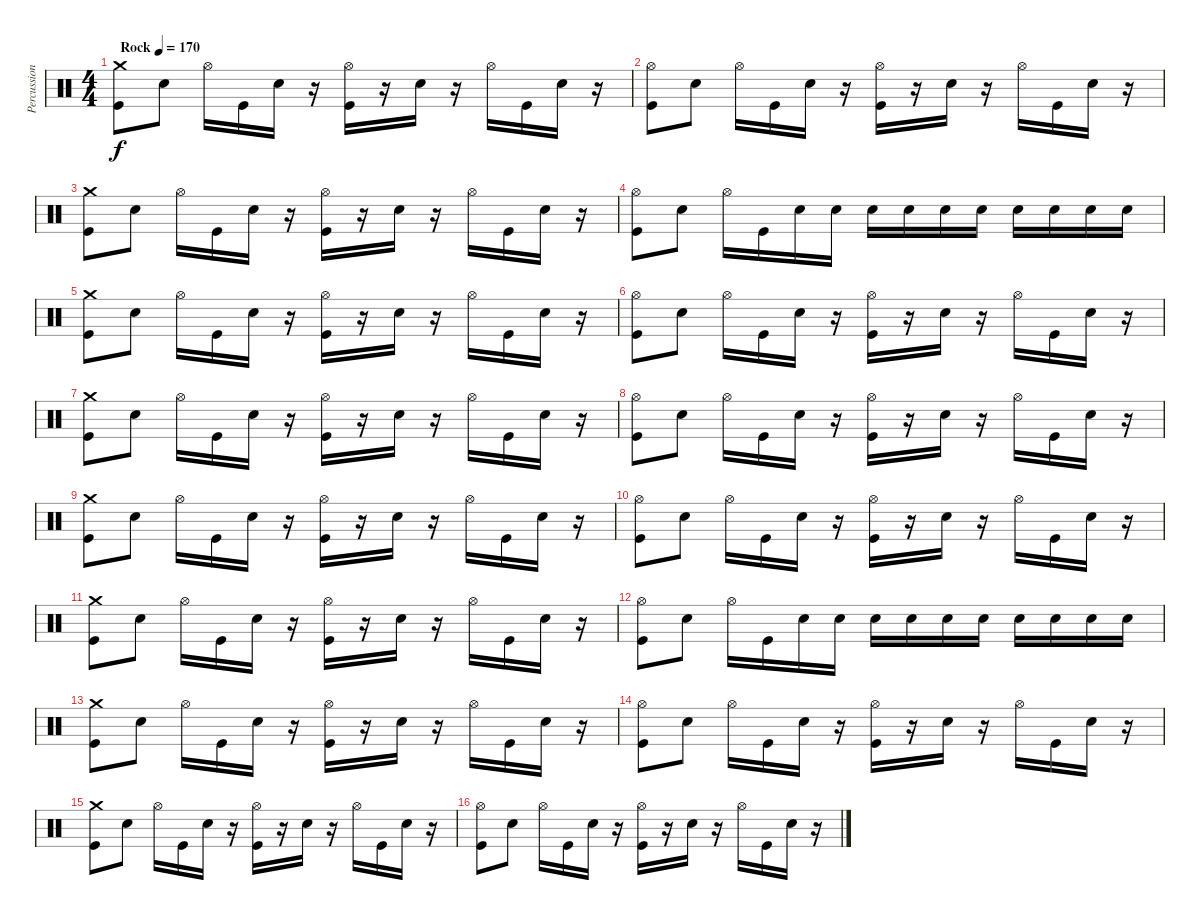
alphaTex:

\track ("Percussion [Ron]" "Percussion") {instrument percussion}
\staff {score}
\articulation defaults
\ts (4 4)
\tempo (170 "Rock")
\clef neutral
\ks c
("Kick (hit)" "Crash medium (hit)").8{dy f} "Snare (hit) 2".8 "Hi-Hat (open)".16 "Kick (hit)".16 "Snare (hit) 2".16 r.16 ("Kick (hit)" "Hi-Hat (open)").16 r.16 "Snare (hit) 2".16 r.16 "Hi-Hat (open)".16 "Kick (hit)".16 "Snare (hit) 2".16 r.16 |
("Kick (hit)" "Hi-Hat (open)").8 "Snare (hit) 2".8 "Hi-Hat (open)".16 "Kick (hit)".16 "Snare (hit) 2".16 r.16 ("Kick (hit)" "Hi-Hat (open)").16 r.16 "Snare (hit) 2".16 r.16 "Hi-Hat (open)".16 "Kick (hit)".16 "Snare (hit) 2".16 r.16 |
("Kick (hit)" "Crash medium (hit)").8 "Snare (hit) 2".8 "Hi-Hat (open)".16 "Kick (hit)".16 "Snare (hit) 2".16 r.16 ("Kick (hit)" "Hi-Hat (open)").16 r.16 "Snare (hit) 2".16 r.16 "Hi-Hat (open)".16 "Kick (hit)".16 "Snare (hit) 2".16 r.16 |
("Kick (hit)" "Hi-Hat (open)").8 "Snare (hit) 2".8 "Hi-Hat (open)".16 "Kick (hit)".16 "Snare (hit) 2".16 "Snare (hit) 2".16 "Snare (hit) 2".16 "Snare (hit) 2".16 "Snare (hit) 2".16 "Snare (hit) 2".16 "Snare (hit) 2".16 "Snare (hit) 2".16 "Snare (hit) 2".16 "Snare (hit) 2".16 |
("Kick (hit)" "Crash medium (hit)").8 "Snare (hit) 2".8 "Hi-Hat (open)".16 "Kick (hit)".16 "Snare (hit) 2".16 r.16 ("Kick (hit)" "Hi-Hat (open)").16 r.16 "Snare (hit) 2".16 r.16 "Hi-Hat (open)".16 "Kick (hit)".16 "Snare (hit) 2".16 r.16 |
("Kick (hit)" "Hi-Hat (open)").8 "Snare (hit) 2".8 "Hi-Hat (open)".16 "Kick (hit)".16 "Snare (hit) 2".16 r.16 ("Kick (hit)" "Hi-Hat (open)").16 r.16 "Snare (hit) 2".16 r.16 "Hi-Hat (open)".16 "Kick (hit)".16 "Snare (hit) 2".16 r.16 |
("Kick (hit)" "Crash medium (hit)").8 "Snare (hit) 2".8 "Hi-Hat (open)".16 "Kick (hit)".16 "Snare (hit) 2".16 r.16 ("Kick (hit)" "Hi-Hat (open)").16 r.16 "Snare (hit) 2".16 r.16 "Hi-Hat (open)".16 "Kick (hit)".16 "Snare (hit) 2".16 r.16 |
("Kick (hit)" "Hi-Hat (open)").8 "Snare (hit) 2".8 "Hi-Hat (open)".16 "Kick (hit)".16 "Snare (hit) 2".16 r.16 ("Kick (hit)" "Hi-Hat (open)").16 r.16 "Snare (hit) 2".16 r.16 "Hi-Hat (open)".16 "Kick (hit)".16 "Snare (hit) 2".16 r.16 |
("Kick (hit)" "Crash medium (hit)").8 "Snare (hit) 2".8 "Hi-Hat (open)".16 "Kick (hit)".16 "Snare (hit) 2".16 r.16 ("Kick (hit)" "Hi-Hat (open)").16 r.16 "Snare (hit) 2".16 r.16 "Hi-Hat (open)".16 "Kick (hit)".16 "Snare (hit) 2".16 r.16 |
("Kick (hit)" "Hi-Hat (open)").8 "Snare (hit) 2".8 "Hi-Hat (open)".16 "Kick (hit)".16 "Snare (hit) 2".16 r.16 ("Kick (hit)" "Hi-Hat (open)").16 r.16 "Snare (hit) 2".16 r.16 "Hi-Hat (open)".16 "Kick (hit)".16 "Snare (hit) 2".16 r.16 |
("Kick (hit)" "Crash medium (hit)").8 "Snare (hit) 2".8 "Hi-Hat (open)".16 "Kick (hit)".16 "Snare (hit) 2".16 r.16 ("Kick (hit)" "Hi-Hat (open)").16 r.16 "Snare (hit) 2".16 r.16 "Hi-Hat (open)".16 "Kick (hit)".16 "Snare (hit) 2".16 r.16 |
("Kick (hit)" "Hi-Hat (open)").8 "Snare (hit) 2".8 "Hi-Hat (open)".16 "Kick (hit)".16 "Snare (hit) 2".16 "Snare (hit) 2".16 "Snare (hit) 2".16 "Snare (hit) 2".16 "Snare (hit) 2".16 "Snare (hit) 2".16 "Snare (hit) 2".16 "Snare (hit) 2".16 "Snare (hit) 2".16 "Snare (hit) 2".16 |
("Kick (hit)" "Crash medium (hit)").8 "Snare (hit) 2".8 "Hi-Hat (open)".16 "Kick (hit)".16 "Snare (hit) 2".16 r.16 ("Kick (hit)" "Hi-Hat (open)").16 r.16 "Snare (hit) 2".16 r.16 "Hi-Hat (open)".16 "Kick (hit)".16 "Snare (hit) 2".16 r.16 |
("Kick (hit)" "Hi-Hat (open)").8 "Snare (hit) 2".8 "Hi-Hat (open)".16 "Kick (hit)".16 "Snare (hit) 2".16 r.16 ("Kick (hit)" "Hi-Hat (open)").16 r.16 "Snare (hit) 2".16 r.16 "Hi-Hat (open)".16 "Kick (hit)".16 "Snare (hit) 2".16 r.16 |
("Kick (hit)" "Crash medium (hit)").8 "Snare (hit) 2".8 "Hi-Hat (open)".16 "Kick (hit)".16 "Snare (hit) 2".16 r.16 ("Kick (hit)" "Hi-Hat (open)").16 r.16 "Snare (hit) 2".16 r.16 "Hi-Hat (open)".16 "Kick (hit)".16 "Snare (hit) 2".16 r.16 |
("Kick (hit)" "Hi-Hat (open)").8 "Snare (hit) 2".8 "Hi-Hat (open)".16 "Kick (hit)".16 "Snare (hit) 2".16 r.16 ("Kick (hit)" "Hi-Hat (open)").16 r.16 "Snare (hit) 2".16 r.16 "Hi-Hat (open)".16 "Kick (hit)".16 "Snare (hit) 2".16 r.16
